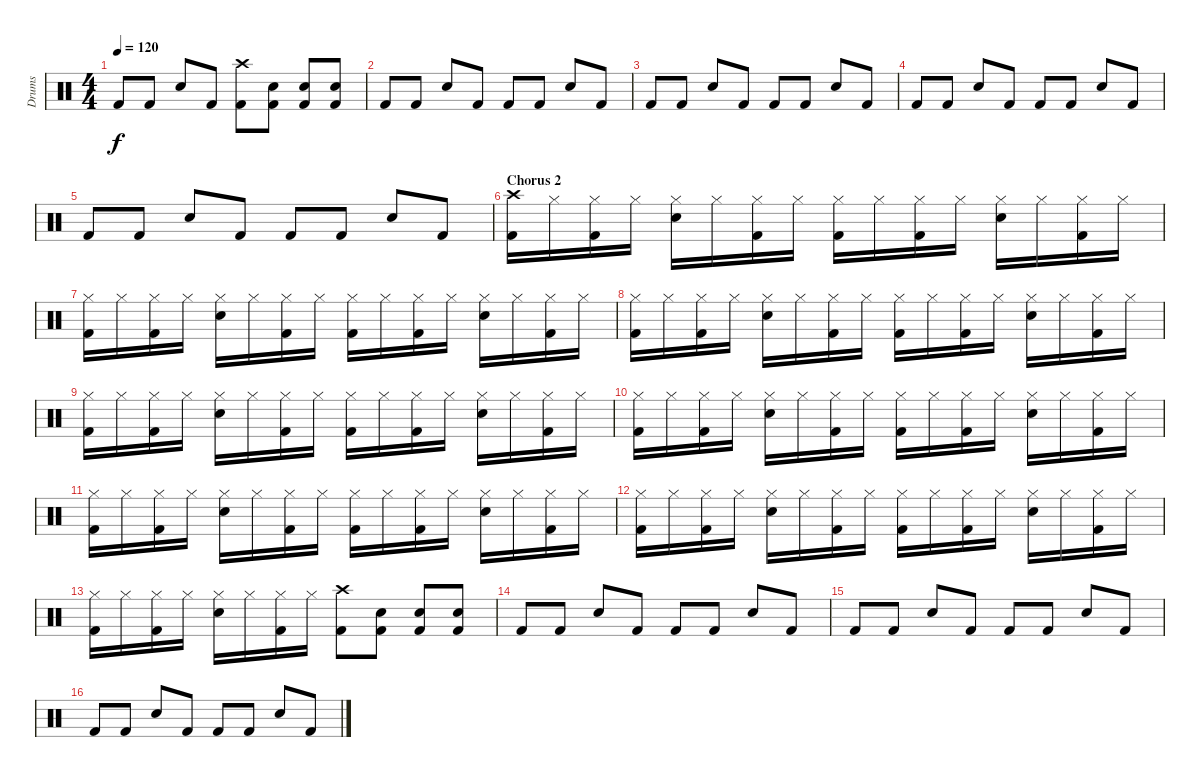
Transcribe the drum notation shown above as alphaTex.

\track ("Drums" "Drums") {instrument percussion}
\staff {score}
\articulation defaults
\ts (4 4)
\tempo 120
\clef neutral
\ks c "Kick (hit) 2".8{dy f} "Kick (hit) 2".8 "Snare (hit) 2".8 "Kick (hit) 2".8
("Crash high (hit)" "Kick (hit) 2").8 ("Snare (hit) 2" "Kick (hit) 2").8 ("Snare (hit) 2" "Kick (hit) 2").8 ("Snare (hit) 2" "Kick (hit) 2").8 |
"Kick (hit) 2".8 "Kick (hit) 2".8 "Snare (hit) 2".8 "Kick (hit) 2".8 "Kick (hit) 2".8 "Kick (hit) 2".8 "Snare (hit) 2".8 "Kick (hit) 2".8 |
"Kick (hit) 2".8 "Kick (hit) 2".8 "Snare (hit) 2".8 "Kick (hit) 2".8 "Kick (hit) 2".8 "Kick (hit) 2".8 "Snare (hit) 2".8 "Kick (hit) 2".8 |
"Kick (hit) 2".8 "Kick (hit) 2".8 "Snare (hit) 2".8 "Kick (hit) 2".8 "Kick (hit) 2".8 "Kick (hit) 2".8 "Snare (hit) 2".8 "Kick (hit) 2".8 |
"Kick (hit) 2".8 "Kick (hit) 2".8 "Snare (hit) 2".8 "Kick (hit) 2".8 "Kick (hit) 2".8 "Kick (hit) 2".8 "Snare (hit) 2".8 "Kick (hit) 2".8 |
\section ("" "Chorus 2")
("Crash high (hit)" "Kick (hit) 2").16 "Hi-Hat (closed)".16 ("Hi-Hat (closed)" "Kick (hit) 2").16 "Hi-Hat (closed)".16 ("Hi-Hat (closed)" "Snare (hit) 2").16 "Hi-Hat (closed)".16 ("Hi-Hat (closed)" "Kick (hit) 2").16 "Hi-Hat (closed)".16 ("Hi-Hat (closed)" "Kick (hit) 2").16 "Hi-Hat (closed)".16 ("Hi-Hat (closed)" "Kick (hit) 2").16 "Hi-Hat (closed)".16 ("Hi-Hat (closed)" "Snare (hit) 2").16 "Hi-Hat (closed)".16 ("Hi-Hat (closed)" "Kick (hit) 2").16 "Hi-Hat (closed)".16 |
("Hi-Hat (closed)" "Kick (hit) 2").16 "Hi-Hat (closed)".16 ("Hi-Hat (closed)" "Kick (hit) 2").16 "Hi-Hat (closed)".16 ("Hi-Hat (closed)" "Snare (hit) 2").16 "Hi-Hat (closed)".16 ("Hi-Hat (closed)" "Kick (hit) 2").16 "Hi-Hat (closed)".16 ("Hi-Hat (closed)" "Kick (hit) 2").16 "Hi-Hat (closed)".16 ("Hi-Hat (closed)" "Kick (hit) 2").16 "Hi-Hat (closed)".16 ("Hi-Hat (closed)" "Snare (hit) 2").16 "Hi-Hat (closed)".16 ("Hi-Hat (closed)" "Kick (hit) 2").16 "Hi-Hat (closed)".16 |
("Hi-Hat (closed)" "Kick (hit) 2").16 "Hi-Hat (closed)".16 ("Hi-Hat (closed)" "Kick (hit) 2").16 "Hi-Hat (closed)".16 ("Hi-Hat (closed)" "Snare (hit) 2").16 "Hi-Hat (closed)".16 ("Hi-Hat (closed)" "Kick (hit) 2").16 "Hi-Hat (closed)".16 ("Hi-Hat (closed)" "Kick (hit) 2").16 "Hi-Hat (closed)".16 ("Hi-Hat (closed)" "Kick (hit) 2").16 "Hi-Hat (closed)".16 ("Hi-Hat (closed)" "Snare (hit) 2").16 "Hi-Hat (closed)".16 ("Hi-Hat (closed)" "Kick (hit) 2").16 "Hi-Hat (closed)".16 |
("Hi-Hat (closed)" "Kick (hit) 2").16 "Hi-Hat (closed)".16 ("Hi-Hat (closed)" "Kick (hit) 2").16 "Hi-Hat (closed)".16 ("Hi-Hat (closed)" "Snare (hit) 2").16 "Hi-Hat (closed)".16 ("Hi-Hat (closed)" "Kick (hit) 2").16 "Hi-Hat (closed)".16 ("Hi-Hat (closed)" "Kick (hit) 2").16 "Hi-Hat (closed)".16 ("Hi-Hat (closed)" "Kick (hit) 2").16 "Hi-Hat (closed)".16 ("Hi-Hat (closed)" "Snare (hit) 2").16 "Hi-Hat (closed)".16 ("Hi-Hat (closed)" "Kick (hit) 2").16 "Hi-Hat (closed)".16 |
("Hi-Hat (closed)" "Kick (hit) 2").16 "Hi-Hat (closed)".16 ("Hi-Hat (closed)" "Kick (hit) 2").16 "Hi-Hat (closed)".16 ("Hi-Hat (closed)" "Snare (hit) 2").16 "Hi-Hat (closed)".16 ("Hi-Hat (closed)" "Kick (hit) 2").16 "Hi-Hat (closed)".16 ("Hi-Hat (closed)" "Kick (hit) 2").16 "Hi-Hat (closed)".16 ("Hi-Hat (closed)" "Kick (hit) 2").16 "Hi-Hat (closed)".16 ("Hi-Hat (closed)" "Snare (hit) 2").16 "Hi-Hat (closed)".16 ("Hi-Hat (closed)" "Kick (hit) 2").16 "Hi-Hat (closed)".16 |
("Hi-Hat (closed)" "Kick (hit) 2").16 "Hi-Hat (closed)".16 ("Hi-Hat (closed)" "Kick (hit) 2").16 "Hi-Hat (closed)".16 ("Hi-Hat (closed)" "Snare (hit) 2").16 "Hi-Hat (closed)".16 ("Hi-Hat (closed)" "Kick (hit) 2").16 "Hi-Hat (closed)".16 ("Hi-Hat (closed)" "Kick (hit) 2").16 "Hi-Hat (closed)".16 ("Hi-Hat (closed)" "Kick (hit) 2").16 "Hi-Hat (closed)".16 ("Hi-Hat (closed)" "Snare (hit) 2").16 "Hi-Hat (closed)".16 ("Hi-Hat (closed)" "Kick (hit) 2").16 "Hi-Hat (closed)".16 |
("Hi-Hat (closed)" "Kick (hit) 2").16 "Hi-Hat (closed)".16 ("Hi-Hat (closed)" "Kick (hit) 2").16 "Hi-Hat (closed)".16 ("Hi-Hat (closed)" "Snare (hit) 2").16 "Hi-Hat (closed)".16 ("Hi-Hat (closed)" "Kick (hit) 2").16 "Hi-Hat (closed)".16 ("Hi-Hat (closed)" "Kick (hit) 2").16 "Hi-Hat (closed)".16 ("Hi-Hat (closed)" "Kick (hit) 2").16 "Hi-Hat (closed)".16 ("Hi-Hat (closed)" "Snare (hit) 2").16 "Hi-Hat (closed)".16 ("Hi-Hat (closed)" "Kick (hit) 2").16 "Hi-Hat (closed)".16 |
("Hi-Hat (closed)" "Kick (hit) 2").16 "Hi-Hat (closed)".16 ("Hi-Hat (closed)" "Kick (hit) 2").16 "Hi-Hat (closed)".16 ("Hi-Hat (closed)" "Snare (hit) 2").16 "Hi-Hat (closed)".16 ("Hi-Hat (closed)" "Kick (hit) 2").16 "Hi-Hat (closed)".16 ("Crash high (hit)" "Kick (hit) 2").8 ("Snare (hit) 2" "Kick (hit) 2").8 ("Snare (hit) 2" "Kick (hit) 2").8 ("Snare (hit) 2" "Kick (hit) 2").8 |
"Kick (hit) 2".8 "Kick (hit) 2".8 "Snare (hit) 2".8 "Kick (hit) 2".8 "Kick (hit) 2".8 "Kick (hit) 2".8 "Snare (hit) 2".8 "Kick (hit) 2".8 |
"Kick (hit) 2".8 "Kick (hit) 2".8 "Snare (hit) 2".8 "Kick (hit) 2".8 "Kick (hit) 2".8 "Kick (hit) 2".8 "Snare (hit) 2".8 "Kick (hit) 2".8 |
"Kick (hit) 2".8 "Kick (hit) 2".8 "Snare (hit) 2".8 "Kick (hit) 2".8 "Kick (hit) 2".8 "Kick (hit) 2".8 "Snare (hit) 2".8 "Kick (hit) 2".8
